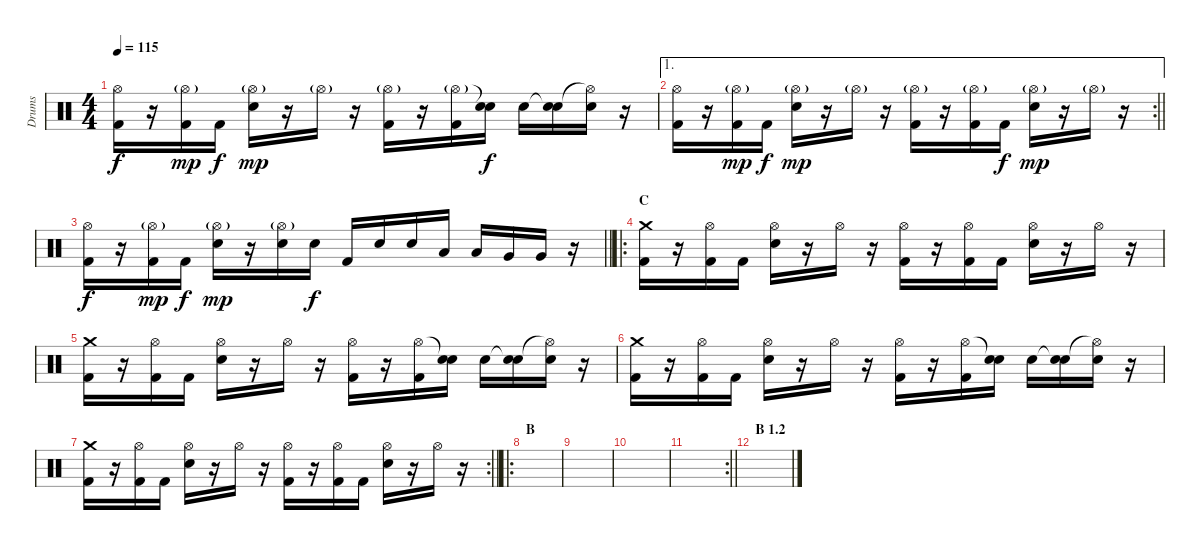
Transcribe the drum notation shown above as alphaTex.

\track ("Drums" "Drums") {instrument percussion}
\staff {score}
\articulation defaults
\ts (4 4)
\tempo 115
\clef neutral
\ks c
("Hi-Hat (open)" "Kick (hit) 2").16{dy f} r.16 ("Hi-Hat (open)"{g} "Kick (hit) 2").16{dy mp} "Kick (hit) 2".16{dy f} ("Hi-Hat (open)"{g} "Electric Snare (hit)").16{dy mp} r.16 "Hi-Hat (open)"{g}.16 r.16 ("Hi-Hat (open)"{g} "Kick (hit) 2").16 r.16 ("Hi-Hat (open)"{g} "Kick (hit) 2").16 ("Snare (hit)"{t} "Electric Snare (hit)").16{dy f} "Electric Snare (hit)".16 ("Snare (hit)"{t} "Electric Snare (hit)").16 ("Hi-Hat (open)"{t} "Electric Snare (hit)").16 r.16 |
\ae 1
\rc 2
\barLineRight lightlight
("Hi-Hat (open)" "Kick (hit) 2").16 r.16 ("Hi-Hat (open)"{g} "Kick (hit) 2").16{dy mp} "Kick (hit) 2".16{dy f} ("Hi-Hat (open)"{g} "Electric Snare (hit)").16{dy mp} r.16 "Hi-Hat (open)"{g}.16 r.16 ("Hi-Hat (open)"{g} "Kick (hit) 2").16 r.16 ("Hi-Hat (open)"{g} "Kick (hit) 2").16 "Kick (hit) 2".16{dy f} ("Hi-Hat (open)"{g} "Electric Snare (hit)").16{dy mp} r.16 "Hi-Hat (open)"{g}.16 r.16 |
\barLineRight lightlight
("Hi-Hat (open)" "Kick (hit) 2").16{dy f} r.16 ("Hi-Hat (open)"{g} "Kick (hit) 2").16{dy mp} "Kick (hit) 2".16{dy f} ("Hi-Hat (open)"{g} "Electric Snare (hit)").16{dy mp} r.16 ("Hi-Hat (open)"{g} "Electric Snare (hit)").16 "Electric Snare (hit)".16{dy f} "Kick (hit) 2".16 "Snare (hit) 2".16 "Snare (hit) 2".16 "Low Tom (hit)".16 "Low Tom (hit)".16 "Very Low Tom (hit)".16 "Very Low Tom (hit)".16 r.16 |
\ro
\section ("" "C")
("Crash medium (hit)" "Kick (hit) 2").16 r.16 ("Hi-Hat (open)" "Kick (hit) 2").16 "Kick (hit) 2".16 ("Hi-Hat (open)" "Electric Snare (hit)").16 r.16 "Hi-Hat (open)".16 r.16 ("Hi-Hat (open)" "Kick (hit) 2").16 r.16 ("Hi-Hat (open)" "Kick (hit) 2").16 "Kick (hit) 2".16 ("Hi-Hat (open)" "Electric Snare (hit)").16 r.16 "Hi-Hat (open)".16 r.16 |
("Crash medium (hit)" "Kick (hit) 2").16 r.16 ("Hi-Hat (open)" "Kick (hit) 2").16 "Kick (hit) 2".16 ("Hi-Hat (open)" "Electric Snare (hit)").16 r.16 "Hi-Hat (open)".16 r.16 ("Hi-Hat (open)" "Kick (hit) 2").16 r.16 ("Hi-Hat (open)" "Kick (hit) 2").16 ("Snare (hit)"{t} "Electric Snare (hit)").16 "Electric Snare (hit)".16 ("Snare (hit)"{t} "Electric Snare (hit)").16 ("Hi-Hat (open)"{t} "Electric Snare (hit)").16 r.16 |
("Crash medium (hit)" "Kick (hit) 2").16 r.16 ("Hi-Hat (open)" "Kick (hit) 2").16 "Kick (hit) 2".16 ("Hi-Hat (open)" "Electric Snare (hit)").16 r.16 "Hi-Hat (open)".16 r.16 ("Hi-Hat (open)" "Kick (hit) 2").16 r.16 ("Hi-Hat (open)" "Kick (hit) 2").16 ("Snare (hit)"{t} "Electric Snare (hit)").16 "Electric Snare (hit)".16 ("Snare (hit)"{t} "Electric Snare (hit)").16 ("Hi-Hat (open)"{t} "Electric Snare (hit)").16 r.16 |
\rc 2
\barLineRight lightlight
("Crash medium (hit)" "Kick (hit) 2").16 r.16 ("Hi-Hat (open)" "Kick (hit) 2").16 "Kick (hit) 2".16 ("Hi-Hat (open)" "Electric Snare (hit)").16 r.16 "Hi-Hat (open)".16 r.16 ("Hi-Hat (open)" "Kick (hit) 2").16 r.16 ("Hi-Hat (open)" "Kick (hit) 2").16 "Kick (hit) 2".16 ("Hi-Hat (open)" "Electric Snare (hit)").16 r.16 "Hi-Hat (open)".16 r.16 |
\ro
\section ("" "B")
|
|
|
\rc 2
\barLineRight lightlight
|
\section ("" "B 1.2")
